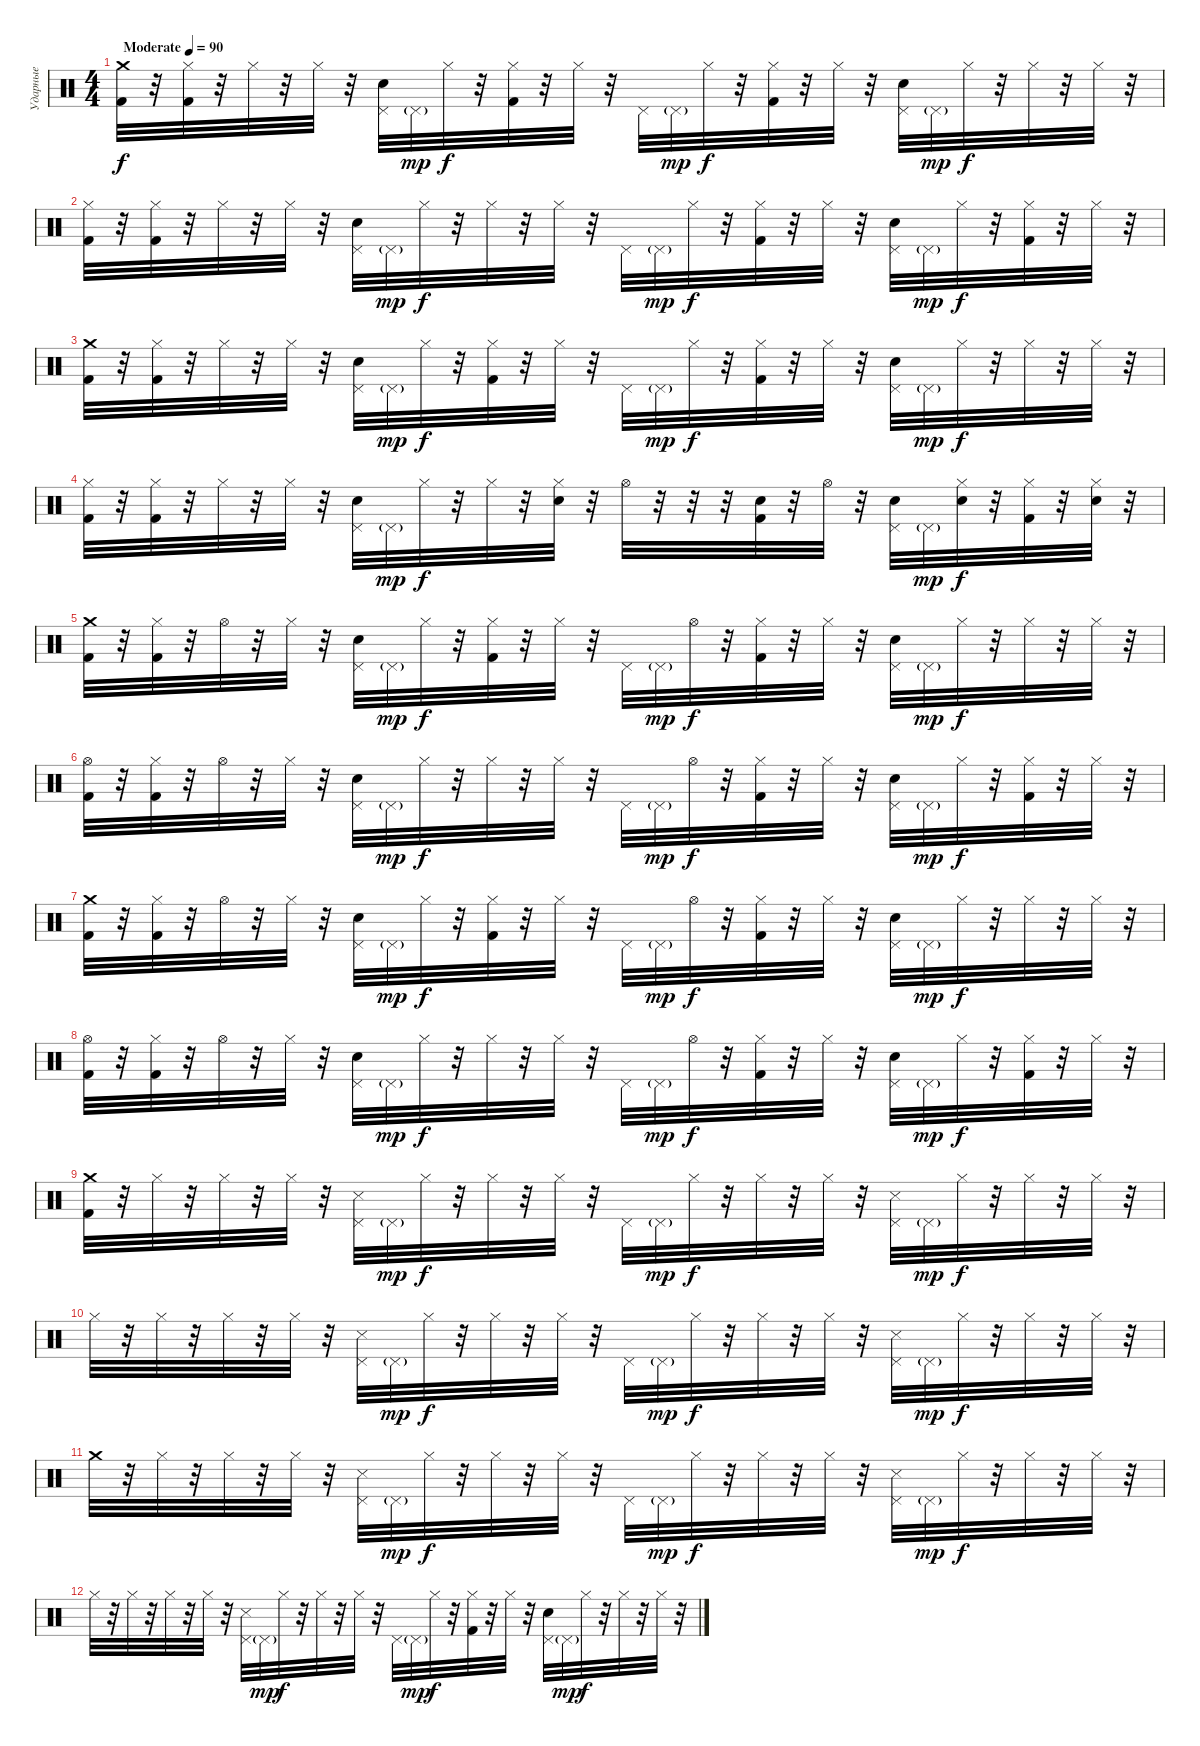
\track ("Ударные" "Ударные") {instrument percussion}
\staff {score}
\articulation defaults
\ts (4 4)
\tempo (90 "Moderate")
\clef neutral
\ks c
("Crash medium (hit)" "Kick (hit) 2").32{dy f} r.32 ("Hi-Hat (closed)" "Kick (hit) 2").32 r.32 "Hi-Hat (closed)".32 r.32 "Hi-Hat (closed)".32 r.32 ("Pedal Hi-Hat (hit)" "Electric Snare (hit)").32 "Pedal Hi-Hat (hit)"{g}.32{dy mp} "Hi-Hat (closed)".32{dy f} r.32 ("Hi-Hat (closed)" "Kick (hit) 2").32 r.32 "Hi-Hat (closed)".32 r.32 "Pedal Hi-Hat (hit)".32 "Pedal Hi-Hat (hit)"{g}.32{dy mp} "Hi-Hat (closed)".32{dy f} r.32 ("Hi-Hat (closed)" "Kick (hit) 2").32 r.32 "Hi-Hat (closed)".32 r.32 ("Pedal Hi-Hat (hit)" "Electric Snare (hit)").32 "Pedal Hi-Hat (hit)"{g}.32{dy mp} "Hi-Hat (closed)".32{dy f} r.32 "Hi-Hat (closed)".32 r.32 "Hi-Hat (closed)".32 r.32 |
("Hi-Hat (closed)" "Kick (hit) 2").32 r.32 ("Hi-Hat (closed)" "Kick (hit) 2").32 r.32 "Hi-Hat (closed)".32 r.32 "Hi-Hat (closed)".32 r.32 ("Pedal Hi-Hat (hit)" "Electric Snare (hit)").32 "Pedal Hi-Hat (hit)"{g}.32{dy mp} "Hi-Hat (closed)".32{dy f} r.32 "Hi-Hat (closed)".32 r.32 "Hi-Hat (closed)".32 r.32 "Pedal Hi-Hat (hit)".32 "Pedal Hi-Hat (hit)"{g}.32{dy mp} "Hi-Hat (closed)".32{dy f} r.32 ("Hi-Hat (closed)" "Kick (hit) 2").32 r.32 "Hi-Hat (closed)".32 r.32 ("Pedal Hi-Hat (hit)" "Electric Snare (hit)").32 "Pedal Hi-Hat (hit)"{g}.32{dy mp} "Hi-Hat (closed)".32{dy f} r.32 ("Hi-Hat (closed)" "Kick (hit) 2").32 r.32 "Hi-Hat (closed)".32 r.32 |
("Crash medium (hit)" "Kick (hit) 2").32 r.32 ("Hi-Hat (closed)" "Kick (hit) 2").32 r.32 "Hi-Hat (closed)".32 r.32 "Hi-Hat (closed)".32 r.32 ("Pedal Hi-Hat (hit)" "Electric Snare (hit)").32 "Pedal Hi-Hat (hit)"{g}.32{dy mp} "Hi-Hat (closed)".32{dy f} r.32 ("Hi-Hat (closed)" "Kick (hit) 2").32 r.32 "Hi-Hat (closed)".32 r.32 "Pedal Hi-Hat (hit)".32 "Pedal Hi-Hat (hit)"{g}.32{dy mp} "Hi-Hat (closed)".32{dy f} r.32 ("Hi-Hat (closed)" "Kick (hit) 2").32 r.32 "Hi-Hat (closed)".32 r.32 ("Pedal Hi-Hat (hit)" "Electric Snare (hit)").32 "Pedal Hi-Hat (hit)"{g}.32{dy mp} "Hi-Hat (closed)".32{dy f} r.32 "Hi-Hat (closed)".32 r.32 "Hi-Hat (closed)".32 r.32 |
("Hi-Hat (closed)" "Kick (hit) 2").32 r.32 ("Hi-Hat (closed)" "Kick (hit) 2").32 r.32 "Hi-Hat (closed)".32 r.32 "Hi-Hat (closed)".32 r.32 ("Pedal Hi-Hat (hit)" "Electric Snare (hit)").32 "Pedal Hi-Hat (hit)"{g}.32{dy mp} "Hi-Hat (closed)".32{dy f} r.32 "Hi-Hat (closed)".32 r.32 ("Hi-Hat (closed)" "Electric Snare (hit)").32 r.32 "Hi-Hat (open)".32 r.32 r.32 r.32 ("Electric Snare (hit)" "Kick (hit) 2").32 r.32 "Hi-Hat (open)".32 r.32 ("Pedal Hi-Hat (hit)" "Electric Snare (hit)").32 "Pedal Hi-Hat (hit)"{g}.32{dy mp} ("Hi-Hat (closed)" "Electric Snare (hit)").32{dy f} r.32 ("Hi-Hat (closed)" "Kick (hit) 2").32 r.32 ("Hi-Hat (closed)" "Electric Snare (hit)").32 r.32 |
("Crash medium (hit)" "Kick (hit) 2").32 r.32 ("Hi-Hat (closed)" "Kick (hit) 2").32 r.32 "Hi-Hat (open)".32 r.32 "Hi-Hat (closed)".32 r.32 ("Pedal Hi-Hat (hit)" "Electric Snare (hit)").32 "Pedal Hi-Hat (hit)"{g}.32{dy mp} "Hi-Hat (closed)".32{dy f} r.32 ("Hi-Hat (closed)" "Kick (hit) 2").32 r.32 "Hi-Hat (closed)".32 r.32 "Pedal Hi-Hat (hit)".32 "Pedal Hi-Hat (hit)"{g}.32{dy mp} "Hi-Hat (open)".32{dy f} r.32 ("Hi-Hat (closed)" "Kick (hit) 2").32 r.32 "Hi-Hat (closed)".32 r.32 ("Pedal Hi-Hat (hit)" "Electric Snare (hit)").32 "Pedal Hi-Hat (hit)"{g}.32{dy mp} "Hi-Hat (closed)".32{dy f} r.32 "Hi-Hat (closed)".32 r.32 "Hi-Hat (closed)".32 r.32 |
("Hi-Hat (open)" "Kick (hit) 2").32 r.32 ("Hi-Hat (closed)" "Kick (hit) 2").32 r.32 "Hi-Hat (open)".32 r.32 "Hi-Hat (closed)".32 r.32 ("Pedal Hi-Hat (hit)" "Electric Snare (hit)").32 "Pedal Hi-Hat (hit)"{g}.32{dy mp} "Hi-Hat (closed)".32{dy f} r.32 "Hi-Hat (closed)".32 r.32 "Hi-Hat (closed)".32 r.32 "Pedal Hi-Hat (hit)".32 "Pedal Hi-Hat (hit)"{g}.32{dy mp} "Hi-Hat (open)".32{dy f} r.32 ("Hi-Hat (closed)" "Kick (hit) 2").32 r.32 "Hi-Hat (closed)".32 r.32 ("Pedal Hi-Hat (hit)" "Electric Snare (hit)").32 "Pedal Hi-Hat (hit)"{g}.32{dy mp} "Hi-Hat (closed)".32{dy f} r.32 ("Hi-Hat (closed)" "Kick (hit) 2").32 r.32 "Hi-Hat (closed)".32 r.32 |
("Crash medium (hit)" "Kick (hit) 2").32 r.32 ("Hi-Hat (closed)" "Kick (hit) 2").32 r.32 "Hi-Hat (open)".32 r.32 "Hi-Hat (closed)".32 r.32 ("Pedal Hi-Hat (hit)" "Electric Snare (hit)").32 "Pedal Hi-Hat (hit)"{g}.32{dy mp} "Hi-Hat (closed)".32{dy f} r.32 ("Hi-Hat (closed)" "Kick (hit) 2").32 r.32 "Hi-Hat (closed)".32 r.32 "Pedal Hi-Hat (hit)".32 "Pedal Hi-Hat (hit)"{g}.32{dy mp} "Hi-Hat (open)".32{dy f} r.32 ("Hi-Hat (closed)" "Kick (hit) 2").32 r.32 "Hi-Hat (closed)".32 r.32 ("Pedal Hi-Hat (hit)" "Electric Snare (hit)").32 "Pedal Hi-Hat (hit)"{g}.32{dy mp} "Hi-Hat (closed)".32{dy f} r.32 "Hi-Hat (closed)".32 r.32 "Hi-Hat (closed)".32 r.32 |
("Hi-Hat (open)" "Kick (hit) 2").32 r.32 ("Hi-Hat (closed)" "Kick (hit) 2").32 r.32 "Hi-Hat (open)".32 r.32 "Hi-Hat (closed)".32 r.32 ("Pedal Hi-Hat (hit)" "Electric Snare (hit)").32 "Pedal Hi-Hat (hit)"{g}.32{dy mp} "Hi-Hat (closed)".32{dy f} r.32 "Hi-Hat (closed)".32 r.32 "Hi-Hat (closed)".32 r.32 "Pedal Hi-Hat (hit)".32 "Pedal Hi-Hat (hit)"{g}.32{dy mp} "Hi-Hat (open)".32{dy f} r.32 ("Hi-Hat (closed)" "Kick (hit) 2").32 r.32 "Hi-Hat (closed)".32 r.32 ("Pedal Hi-Hat (hit)" "Electric Snare (hit)").32 "Pedal Hi-Hat (hit)"{g}.32{dy mp} "Hi-Hat (closed)".32{dy f} r.32 ("Hi-Hat (closed)" "Kick (hit) 2").32 r.32 "Hi-Hat (closed)".32 r.32 |
("Crash medium (hit)" "Kick (hit) 2").32 r.32 "Hi-Hat (closed)".32 r.32 "Hi-Hat (closed)".32 r.32 "Hi-Hat (closed)".32 r.32 ("Pedal Hi-Hat (hit)" "Snare (side stick) 3").32 "Pedal Hi-Hat (hit)"{g}.32{dy mp} "Hi-Hat (closed)".32{dy f} r.32 "Hi-Hat (closed)".32 r.32 "Hi-Hat (closed)".32 r.32 "Pedal Hi-Hat (hit)".32 "Pedal Hi-Hat (hit)"{g}.32{dy mp} "Hi-Hat (closed)".32{dy f} r.32 "Hi-Hat (closed)".32 r.32 "Hi-Hat (closed)".32 r.32 ("Pedal Hi-Hat (hit)" "Snare (side stick) 3").32 "Pedal Hi-Hat (hit)"{g}.32{dy mp} "Hi-Hat (closed)".32{dy f} r.32 "Hi-Hat (closed)".32 r.32 "Hi-Hat (closed)".32 r.32 |
"Hi-Hat (closed)".32 r.32 "Hi-Hat (closed)".32 r.32 "Hi-Hat (closed)".32 r.32 "Hi-Hat (closed)".32 r.32 ("Pedal Hi-Hat (hit)" "Snare (side stick) 3").32 "Pedal Hi-Hat (hit)"{g}.32{dy mp} "Hi-Hat (closed)".32{dy f} r.32 "Hi-Hat (closed)".32 r.32 "Hi-Hat (closed)".32 r.32 "Pedal Hi-Hat (hit)".32 "Pedal Hi-Hat (hit)"{g}.32{dy mp} "Hi-Hat (closed)".32{dy f} r.32 "Hi-Hat (closed)".32 r.32 "Hi-Hat (closed)".32 r.32 ("Pedal Hi-Hat (hit)" "Snare (side stick) 3").32 "Pedal Hi-Hat (hit)"{g}.32{dy mp} "Hi-Hat (closed)".32{dy f} r.32 "Hi-Hat (closed)".32 r.32 "Hi-Hat (closed)".32 r.32 |
"Crash medium (hit)".32 r.32 "Hi-Hat (closed)".32 r.32 "Hi-Hat (closed)".32 r.32 "Hi-Hat (closed)".32 r.32 ("Pedal Hi-Hat (hit)" "Snare (side stick) 3").32 "Pedal Hi-Hat (hit)"{g}.32{dy mp} "Hi-Hat (closed)".32{dy f} r.32 "Hi-Hat (closed)".32 r.32 "Hi-Hat (closed)".32 r.32 "Pedal Hi-Hat (hit)".32 "Pedal Hi-Hat (hit)"{g}.32{dy mp} "Hi-Hat (closed)".32{dy f} r.32 "Hi-Hat (closed)".32 r.32 "Hi-Hat (closed)".32 r.32 ("Pedal Hi-Hat (hit)" "Snare (side stick) 3").32 "Pedal Hi-Hat (hit)"{g}.32{dy mp} "Hi-Hat (closed)".32{dy f} r.32 "Hi-Hat (closed)".32 r.32 "Hi-Hat (closed)".32 r.32 |
"Hi-Hat (closed)".32 r.32 "Hi-Hat (closed)".32 r.32 "Hi-Hat (closed)".32 r.32 "Hi-Hat (closed)".32 r.32 ("Pedal Hi-Hat (hit)" "Snare (side stick) 3").32 "Pedal Hi-Hat (hit)"{g}.32{dy mp} "Hi-Hat (closed)".32{dy f} r.32 "Hi-Hat (closed)".32 r.32 "Hi-Hat (closed)".32 r.32 "Pedal Hi-Hat (hit)".32 "Pedal Hi-Hat (hit)"{g}.32{dy mp} "Hi-Hat (closed)".32{dy f} r.32 ("Hi-Hat (closed)" "Kick (hit) 2").32 r.32 "Hi-Hat (closed)".32 r.32 ("Pedal Hi-Hat (hit)" "Electric Snare (hit)").32 "Pedal Hi-Hat (hit)"{g}.32{dy mp} "Hi-Hat (closed)".32{dy f} r.32 "Hi-Hat (closed)".32 r.32 "Hi-Hat (closed)".32 r.32
